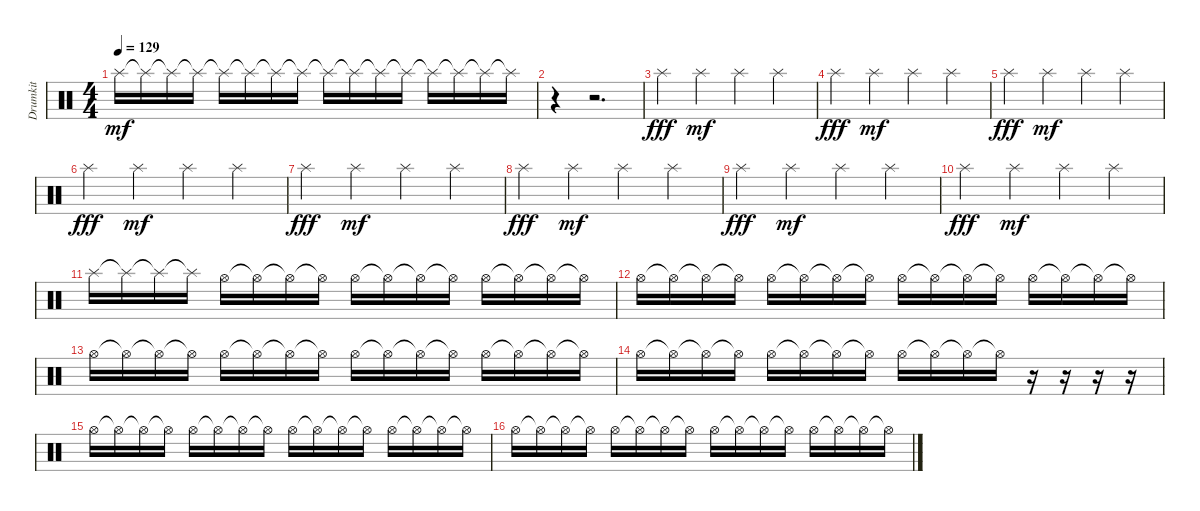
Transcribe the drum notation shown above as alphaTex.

\track ("Drumkit" "Drumkit") {instrument percussion}
\staff {score}
\articulation defaults
\ts (4 4)
\tempo 129
\clef neutral
\ks c "Splash (hit)".16{dy mf} "Splash (hit)"{t}.16 "Splash (hit)"{t}.16 "Splash (hit)"{t}.16 "Splash (hit)"{t}.16 "Splash (hit)"{t}.16 "Splash (hit)"{t}.16 "Splash (hit)"{t}.16 "Splash (hit)"{t}.16 "Splash (hit)"{t}.16 "Splash (hit)"{t}.16 "Splash (hit)"{t}.16 "Splash (hit)"{t}.16 "Splash (hit)"{t}.16 "Splash (hit)"{t}.16 "Splash (hit)"{t}.16
|
r.4 r.2{d} |
"Splash (hit)".4{dy fff} "Splash (hit)".4{dy mf} "Splash (hit)".4 "Splash (hit)".4 |
"Splash (hit)".4{dy fff} "Splash (hit)".4{dy mf} "Splash (hit)".4 "Splash (hit)".4 |
"Splash (hit)".4{dy fff} "Splash (hit)".4{dy mf} "Splash (hit)".4 "Splash (hit)".4 |
"Splash (hit)".4{dy fff} "Splash (hit)".4{dy mf} "Splash (hit)".4 "Splash (hit)".4 |
"Splash (hit)".4{dy fff} "Splash (hit)".4{dy mf} "Splash (hit)".4 "Splash (hit)".4 |
"Splash (hit)".4{dy fff} "Splash (hit)".4{dy mf} "Splash (hit)".4 "Splash (hit)".4 |
"Splash (hit)".4{dy fff} "Splash (hit)".4{dy mf} "Splash (hit)".4 "Splash (hit)".4 |
"Splash (hit)".4{dy fff} "Splash (hit)".4{dy mf} "Splash (hit)".4 "Splash (hit)".4 |
"Splash (hit)".16 "Splash (hit)"{t}.16 "Splash (hit)"{t}.16 "Splash (hit)"{t}.16 "Hi-Hat (open)".16 "Hi-Hat (open)"{t}.16 "Hi-Hat (open)"{t}.16 "Hi-Hat (open)"{t}.16 "Hi-Hat (open)".16 "Hi-Hat (open)"{t}.16 "Hi-Hat (open)"{t}.16 "Hi-Hat (open)"{t}.16 "Hi-Hat (open)".16 "Hi-Hat (open)"{t}.16 "Hi-Hat (open)"{t}.16 "Hi-Hat (open)"{t}.16 |
"Hi-Hat (open)".16 "Hi-Hat (open)"{t}.16 "Hi-Hat (open)"{t}.16 "Hi-Hat (open)"{t}.16 "Hi-Hat (open)".16 "Hi-Hat (open)"{t}.16 "Hi-Hat (open)"{t}.16 "Hi-Hat (open)"{t}.16 "Hi-Hat (open)".16 "Hi-Hat (open)"{t}.16 "Hi-Hat (open)"{t}.16 "Hi-Hat (open)"{t}.16 "Hi-Hat (open)".16 "Hi-Hat (open)"{t}.16 "Hi-Hat (open)"{t}.16 "Hi-Hat (open)"{t}.16 |
"Hi-Hat (open)".16 "Hi-Hat (open)"{t}.16 "Hi-Hat (open)"{t}.16 "Hi-Hat (open)"{t}.16 "Hi-Hat (open)".16 "Hi-Hat (open)"{t}.16 "Hi-Hat (open)"{t}.16 "Hi-Hat (open)"{t}.16 "Hi-Hat (open)".16 "Hi-Hat (open)"{t}.16 "Hi-Hat (open)"{t}.16 "Hi-Hat (open)"{t}.16 "Hi-Hat (open)".16 "Hi-Hat (open)"{t}.16 "Hi-Hat (open)"{t}.16 "Hi-Hat (open)"{t}.16 |
"Hi-Hat (open)".16 "Hi-Hat (open)"{t}.16 "Hi-Hat (open)"{t}.16 "Hi-Hat (open)"{t}.16 "Hi-Hat (open)".16 "Hi-Hat (open)"{t}.16 "Hi-Hat (open)"{t}.16 "Hi-Hat (open)"{t}.16 "Hi-Hat (open)".16 "Hi-Hat (open)"{t}.16 "Hi-Hat (open)"{t}.16 "Hi-Hat (open)"{t}.16 r.16 r.16 r.16 r.16 |
"Hi-Hat (open)".16 "Hi-Hat (open)"{t}.16 "Hi-Hat (open)"{t}.16 "Hi-Hat (open)"{t}.16 "Hi-Hat (open)".16 "Hi-Hat (open)"{t}.16 "Hi-Hat (open)"{t}.16 "Hi-Hat (open)"{t}.16 "Hi-Hat (open)".16 "Hi-Hat (open)"{t}.16 "Hi-Hat (open)"{t}.16 "Hi-Hat (open)"{t}.16 "Hi-Hat (open)".16 "Hi-Hat (open)"{t}.16 "Hi-Hat (open)"{t}.16 "Hi-Hat (open)"{t}.16 |
"Hi-Hat (open)".16 "Hi-Hat (open)"{t}.16 "Hi-Hat (open)"{t}.16 "Hi-Hat (open)"{t}.16 "Hi-Hat (open)".16 "Hi-Hat (open)"{t}.16 "Hi-Hat (open)"{t}.16 "Hi-Hat (open)"{t}.16 "Hi-Hat (open)".16 "Hi-Hat (open)"{t}.16 "Hi-Hat (open)"{t}.16 "Hi-Hat (open)"{t}.16 "Hi-Hat (open)".16 "Hi-Hat (open)"{t}.16 "Hi-Hat (open)"{t}.16 "Hi-Hat (open)"{t}.16
